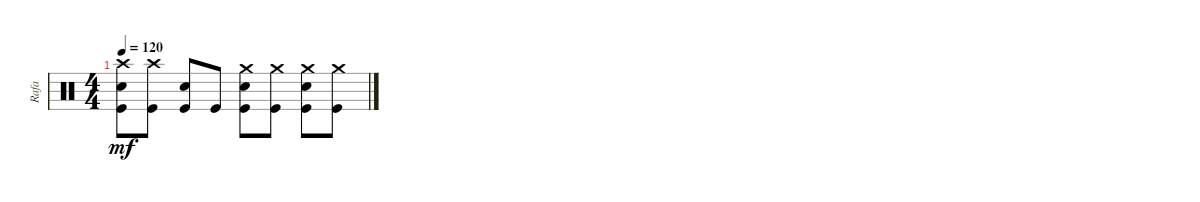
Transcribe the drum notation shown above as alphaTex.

\track ("Rafa" "Rafa") {instrument percussion}
\staff {score}
\articulation defaults
\ts (4 4)
\tempo 120
\clef neutral
\ks c
("Crash high (hit)" "Electric Snare (hit)" "Kick (hit)").8{dy mf} ("Crash high (hit)" "Kick (hit)").8 ("Electric Snare (hit)" "Kick (hit)").8 "Kick (hit)".8 ("Crash medium (hit)" "Electric Snare (hit)" "Kick (hit)").8 ("Crash medium (hit)" "Kick (hit)").8 ("Crash medium (hit)" "Electric Snare (hit)" "Kick (hit)").8 ("Crash medium (hit)" "Kick (hit)").8
